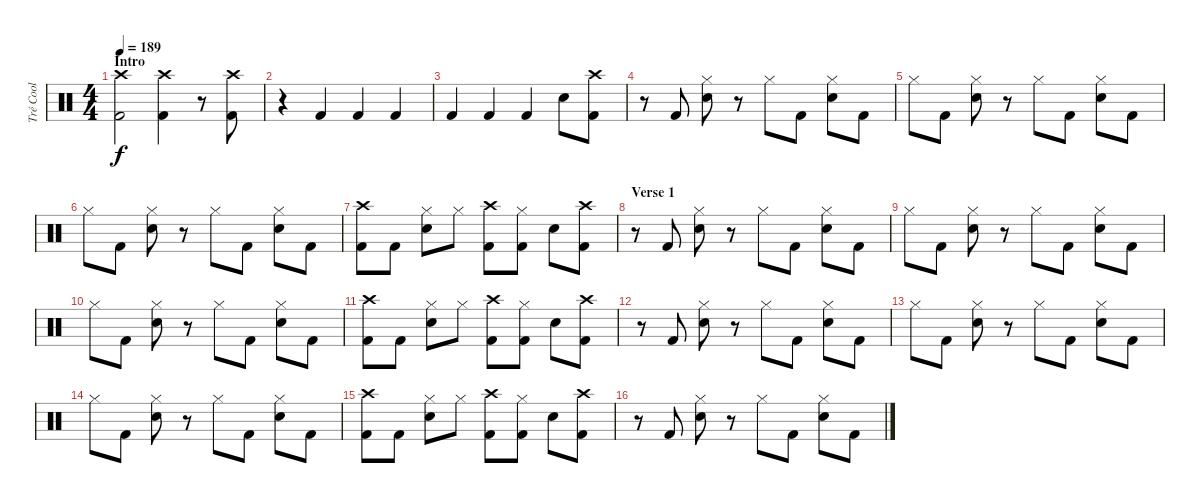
\track ("Tré Cool" "Tré Cool") {instrument percussion}
\staff {score}
\articulation defaults
\ts (4 4)
\section ("" "Intro")
\tempo 189
\clef neutral
\ks c
("Crash high (hit)" "Kick (hit) 2").2{dy f} ("Crash high (hit)" "Kick (hit) 2").4 r.8 ("Crash high (hit)" "Kick (hit) 2").8 |
r.4 "Kick (hit) 2".4 "Kick (hit) 2".4 "Kick (hit) 2".4 |
"Kick (hit) 2".4 "Kick (hit) 2".4 "Kick (hit) 2".4 "Snare (hit) 2".8 ("Crash high (hit)" "Kick (hit) 2").8 |
r.8 "Kick (hit) 2".8 ("Hi-Hat (closed)" "Snare (hit) 2").8 r.8 "Hi-Hat (closed)".8 "Kick (hit) 2".8 ("Hi-Hat (closed)" "Snare (hit) 2").8 "Kick (hit) 2".8 |
"Hi-Hat (closed)".8 "Kick (hit) 2".8 ("Hi-Hat (closed)" "Snare (hit) 2").8 r.8 "Hi-Hat (closed)".8 "Kick (hit) 2".8 ("Hi-Hat (closed)" "Snare (hit) 2").8 "Kick (hit) 2".8 |
"Hi-Hat (closed)".8 "Kick (hit) 2".8 ("Hi-Hat (closed)" "Snare (hit) 2").8 r.8 "Hi-Hat (closed)".8 "Kick (hit) 2".8 ("Hi-Hat (closed)" "Snare (hit) 2").8 "Kick (hit) 2".8 |
("Crash high (hit)" "Kick (hit) 2").8 "Kick (hit) 2".8 ("Hi-Hat (closed)" "Snare (hit) 2").8 "Hi-Hat (closed)".8 ("Crash high (hit)" "Kick (hit) 2").8 ("Hi-Hat (closed)" "Kick (hit) 2").8 "Snare (hit) 2".8 ("Crash high (hit)" "Kick (hit) 2").8 |
\section ("" "Verse 1")
r.8 "Kick (hit) 2".8 ("Hi-Hat (closed)" "Snare (hit) 2").8 r.8 "Hi-Hat (closed)".8 "Kick (hit) 2".8 ("Hi-Hat (closed)" "Snare (hit) 2").8 "Kick (hit) 2".8 |
"Hi-Hat (closed)".8 "Kick (hit) 2".8 ("Hi-Hat (closed)" "Snare (hit) 2").8 r.8 "Hi-Hat (closed)".8 "Kick (hit) 2".8 ("Hi-Hat (closed)" "Snare (hit) 2").8 "Kick (hit) 2".8 |
"Hi-Hat (closed)".8 "Kick (hit) 2".8 ("Hi-Hat (closed)" "Snare (hit) 2").8 r.8 "Hi-Hat (closed)".8 "Kick (hit) 2".8 ("Hi-Hat (closed)" "Snare (hit) 2").8 "Kick (hit) 2".8 |
("Crash high (hit)" "Kick (hit) 2").8 "Kick (hit) 2".8 ("Hi-Hat (closed)" "Snare (hit) 2").8 "Hi-Hat (closed)".8 ("Crash high (hit)" "Kick (hit) 2").8 ("Hi-Hat (closed)" "Kick (hit) 2").8 "Snare (hit) 2".8 ("Crash high (hit)" "Kick (hit) 2").8 |
r.8 "Kick (hit) 2".8 ("Hi-Hat (closed)" "Snare (hit) 2").8 r.8 "Hi-Hat (closed)".8 "Kick (hit) 2".8 ("Hi-Hat (closed)" "Snare (hit) 2").8 "Kick (hit) 2".8 |
"Hi-Hat (closed)".8 "Kick (hit) 2".8 ("Hi-Hat (closed)" "Snare (hit) 2").8 r.8 "Hi-Hat (closed)".8 "Kick (hit) 2".8 ("Hi-Hat (closed)" "Snare (hit) 2").8 "Kick (hit) 2".8 |
"Hi-Hat (closed)".8 "Kick (hit) 2".8 ("Hi-Hat (closed)" "Snare (hit) 2").8 r.8 "Hi-Hat (closed)".8 "Kick (hit) 2".8 ("Hi-Hat (closed)" "Snare (hit) 2").8 "Kick (hit) 2".8 |
("Crash high (hit)" "Kick (hit) 2").8 "Kick (hit) 2".8 ("Hi-Hat (closed)" "Snare (hit) 2").8 "Hi-Hat (closed)".8 ("Crash high (hit)" "Kick (hit) 2").8 ("Hi-Hat (closed)" "Kick (hit) 2").8 "Snare (hit) 2".8 ("Crash high (hit)" "Kick (hit) 2").8 |
r.8 "Kick (hit) 2".8 ("Hi-Hat (closed)" "Snare (hit) 2").8 r.8 "Hi-Hat (closed)".8 "Kick (hit) 2".8 ("Hi-Hat (closed)" "Snare (hit) 2").8 "Kick (hit) 2".8
